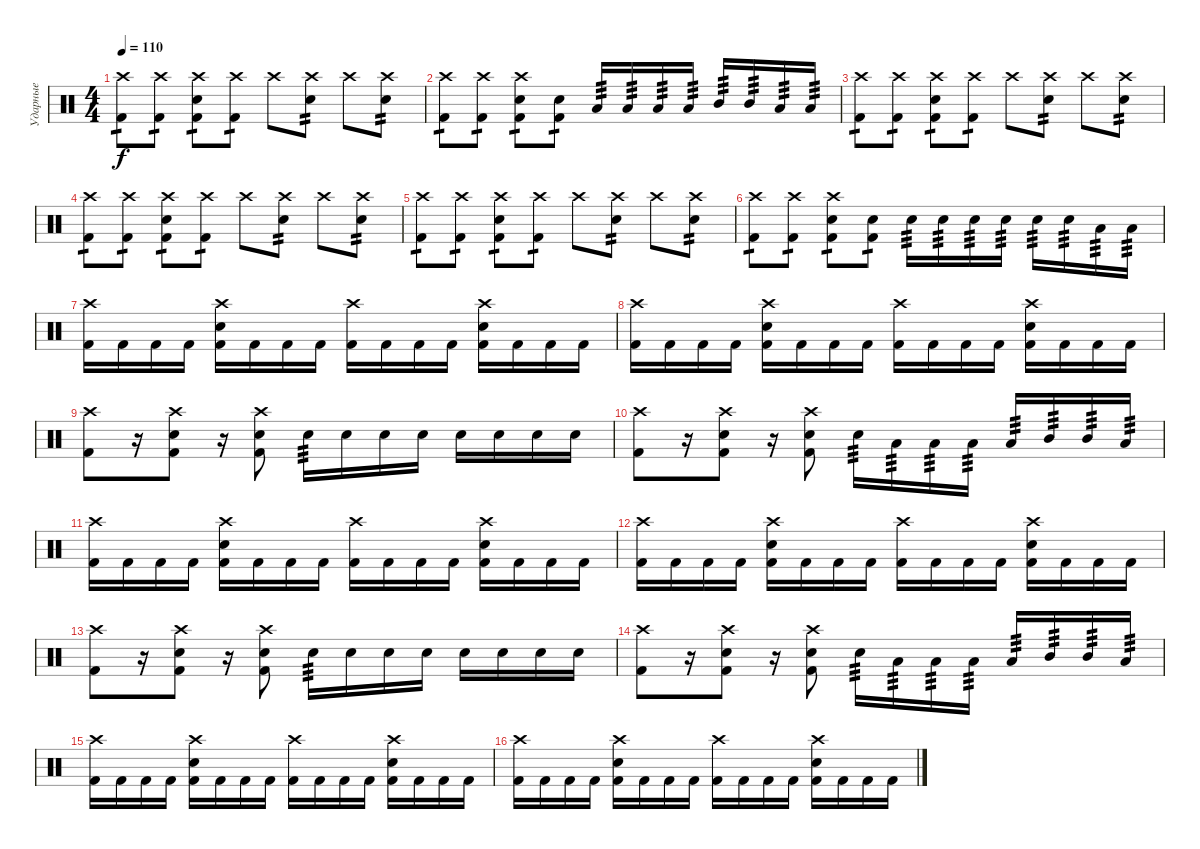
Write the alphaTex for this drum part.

\track ("Ударные" "Ударные") {instrument percussion}
\staff {score}
\articulation defaults
\ts (4 4)
\tempo 110
\clef neutral
\ks c
("Crash high (hit)" "Kick (hit) 2").8{tp 1 dy f} ("Crash high (hit)" "Kick (hit) 2").8{tp 1} ("Crash high (hit)" "Snare (hit) 2" "Kick (hit) 2").8{tp 1} ("Crash high (hit)" "Kick (hit) 2").8{tp 1} "Crash high (hit)".8 ("Crash high (hit)" "Snare (hit) 2").8{tp 2} "Crash high (hit)".8 ("Crash high (hit)" "Snare (hit) 2").8{tp 2} |
("Crash high (hit)" "Kick (hit) 2").8{tp 1} ("Crash high (hit)" "Kick (hit) 2").8{tp 1} ("Crash high (hit)" "Snare (hit) 2" "Kick (hit) 2").8{tp 1} ("Snare (hit) 2" "Kick (hit) 2").8{tp 1} "Low Tom (hit)".16{tp 3} "Low Tom (hit)".16{tp 3} "Low Floor Tom (hit)".16{tp 3} "Low Floor Tom (hit)".16{tp 3} "Mid Tom (hit)".16{tp 3} "Mid Tom (hit)".16{tp 3} "Low Floor Tom (hit)".16{tp 3} "Low Floor Tom (hit)".16{tp 3} |
("Crash high (hit)" "Kick (hit) 2").8{tp 1} ("Crash high (hit)" "Kick (hit) 2").8{tp 1} ("Crash high (hit)" "Snare (hit) 2" "Kick (hit) 2").8{tp 1} ("Crash high (hit)" "Kick (hit) 2").8{tp 1} "Crash high (hit)".8 ("Crash high (hit)" "Snare (hit) 2").8{tp 2} "Crash high (hit)".8 ("Crash high (hit)" "Snare (hit) 2").8{tp 2} |
("Crash high (hit)" "Kick (hit) 2").8{tp 1} ("Crash high (hit)" "Kick (hit) 2").8{tp 1} ("Crash high (hit)" "Snare (hit) 2" "Kick (hit) 2").8{tp 1} ("Crash high (hit)" "Kick (hit) 2").8{tp 1} "Crash high (hit)".8 ("Crash high (hit)" "Snare (hit) 2").8{tp 2} "Crash high (hit)".8 ("Crash high (hit)" "Snare (hit) 2").8{tp 2} |
("Crash high (hit)" "Kick (hit) 2").8{tp 1} ("Crash high (hit)" "Kick (hit) 2").8{tp 1} ("Crash high (hit)" "Snare (hit) 2" "Kick (hit) 2").8{tp 1} ("Crash high (hit)" "Kick (hit) 2").8{tp 1} "Crash high (hit)".8 ("Crash high (hit)" "Snare (hit) 2").8{tp 2} "Crash high (hit)".8 ("Crash high (hit)" "Snare (hit) 2").8{tp 2} |
("Crash high (hit)" "Kick (hit) 2").8{tp 1} ("Crash high (hit)" "Kick (hit) 2").8{tp 1} ("Crash high (hit)" "Snare (hit) 2" "Kick (hit) 2").8{tp 1} ("Snare (hit) 2" "Kick (hit) 2").8{tp 1} "Snare (hit) 2".16{tp 3} "Snare (hit) 2".16{tp 3} "Snare (hit) 2".16{tp 3} "Snare (hit) 2".16{tp 3} "Snare (hit) 2".16{tp 3} "Snare (hit) 2".16{tp 3} "Low Floor Tom (hit)".16{tp 3} "Low Floor Tom (hit)".16{tp 3} |
("Crash high (hit)" "Kick (hit) 2").16 "Kick (hit) 2".16 "Kick (hit) 2".16 "Kick (hit) 2".16 ("Crash high (hit)" "Snare (hit) 2" "Kick (hit) 2").16 "Kick (hit) 2".16 "Kick (hit) 2".16 "Kick (hit) 2".16 ("Crash high (hit)" "Kick (hit) 2").16 "Kick (hit) 2".16 "Kick (hit) 2".16 "Kick (hit) 2".16 ("Crash high (hit)" "Snare (hit) 2" "Kick (hit) 2").16 "Kick (hit) 2".16 "Kick (hit) 2".16 "Kick (hit) 2".16 |
("Crash high (hit)" "Kick (hit) 2").16 "Kick (hit) 2".16 "Kick (hit) 2".16 "Kick (hit) 2".16 ("Crash high (hit)" "Snare (hit) 2" "Kick (hit) 2").16 "Kick (hit) 2".16 "Kick (hit) 2".16 "Kick (hit) 2".16 ("Crash high (hit)" "Kick (hit) 2").16 "Kick (hit) 2".16 "Kick (hit) 2".16 "Kick (hit) 2".16 ("Crash high (hit)" "Snare (hit) 2" "Kick (hit) 2").16 "Kick (hit) 2".16 "Kick (hit) 2".16 "Kick (hit) 2".16 |
("Crash high (hit)" "Kick (hit) 2").8 r.16 ("Crash high (hit)" "Snare (hit) 2" "Kick (hit) 2").8 r.16 ("Crash high (hit)" "Snare (hit) 2" "Kick (hit) 2").8 "Snare (hit) 2".16{tp 3} "Snare (hit) 2".16 "Snare (hit) 2".16 "Snare (hit) 2".16 "Snare (hit) 2".16 "Snare (hit) 2".16 "Snare (hit) 2".16 "Snare (hit) 2".16 |
("Crash high (hit)" "Kick (hit) 2").8 r.16 ("Crash high (hit)" "Snare (hit) 2" "Kick (hit) 2").8 r.16 ("Crash high (hit)" "Snare (hit) 2" "Kick (hit) 2").8 "Snare (hit) 2".16{tp 3} "Low Tom (hit)".16{tp 3} "Low Tom (hit)".16{tp 3} "Low Floor Tom (hit)".16{tp 3} "Low Floor Tom (hit)".16{tp 3} "Mid Tom (hit)".16{tp 3} "Mid Tom (hit)".16{tp 3} "Low Floor Tom (hit)".16{tp 3} |
("Crash high (hit)" "Kick (hit) 2").16 "Kick (hit) 2".16 "Kick (hit) 2".16 "Kick (hit) 2".16 ("Crash high (hit)" "Snare (hit) 2" "Kick (hit) 2").16 "Kick (hit) 2".16 "Kick (hit) 2".16 "Kick (hit) 2".16 ("Crash high (hit)" "Kick (hit) 2").16 "Kick (hit) 2".16 "Kick (hit) 2".16 "Kick (hit) 2".16 ("Crash high (hit)" "Snare (hit) 2" "Kick (hit) 2").16 "Kick (hit) 2".16 "Kick (hit) 2".16 "Kick (hit) 2".16 |
("Crash high (hit)" "Kick (hit) 2").16 "Kick (hit) 2".16 "Kick (hit) 2".16 "Kick (hit) 2".16 ("Crash high (hit)" "Snare (hit) 2" "Kick (hit) 2").16 "Kick (hit) 2".16 "Kick (hit) 2".16 "Kick (hit) 2".16 ("Crash high (hit)" "Kick (hit) 2").16 "Kick (hit) 2".16 "Kick (hit) 2".16 "Kick (hit) 2".16 ("Crash high (hit)" "Snare (hit) 2" "Kick (hit) 2").16 "Kick (hit) 2".16 "Kick (hit) 2".16 "Kick (hit) 2".16 |
("Crash high (hit)" "Kick (hit) 2").8 r.16 ("Crash high (hit)" "Snare (hit) 2" "Kick (hit) 2").8 r.16 ("Crash high (hit)" "Snare (hit) 2" "Kick (hit) 2").8 "Snare (hit) 2".16{tp 3} "Snare (hit) 2".16 "Snare (hit) 2".16 "Snare (hit) 2".16 "Snare (hit) 2".16 "Snare (hit) 2".16 "Snare (hit) 2".16 "Snare (hit) 2".16 |
("Crash high (hit)" "Kick (hit) 2").8 r.16 ("Crash high (hit)" "Snare (hit) 2" "Kick (hit) 2").8 r.16 ("Crash high (hit)" "Snare (hit) 2" "Kick (hit) 2").8 "Snare (hit) 2".16{tp 3} "Low Tom (hit)".16{tp 3} "Low Tom (hit)".16{tp 3} "Low Floor Tom (hit)".16{tp 3} "Low Floor Tom (hit)".16{tp 3} "Mid Tom (hit)".16{tp 3} "Mid Tom (hit)".16{tp 3} "Low Floor Tom (hit)".16{tp 3} |
("Crash high (hit)" "Kick (hit) 2").16 "Kick (hit) 2".16 "Kick (hit) 2".16 "Kick (hit) 2".16 ("Crash high (hit)" "Snare (hit) 2" "Kick (hit) 2").16 "Kick (hit) 2".16 "Kick (hit) 2".16 "Kick (hit) 2".16 ("Crash high (hit)" "Kick (hit) 2").16 "Kick (hit) 2".16 "Kick (hit) 2".16 "Kick (hit) 2".16 ("Crash high (hit)" "Snare (hit) 2" "Kick (hit) 2").16 "Kick (hit) 2".16 "Kick (hit) 2".16 "Kick (hit) 2".16 |
("Crash high (hit)" "Kick (hit) 2").16 "Kick (hit) 2".16 "Kick (hit) 2".16 "Kick (hit) 2".16 ("Crash high (hit)" "Snare (hit) 2" "Kick (hit) 2").16 "Kick (hit) 2".16 "Kick (hit) 2".16 "Kick (hit) 2".16 ("Crash high (hit)" "Kick (hit) 2").16 "Kick (hit) 2".16 "Kick (hit) 2".16 "Kick (hit) 2".16 ("Crash high (hit)" "Snare (hit) 2" "Kick (hit) 2").16 "Kick (hit) 2".16 "Kick (hit) 2".16 "Kick (hit) 2".16
